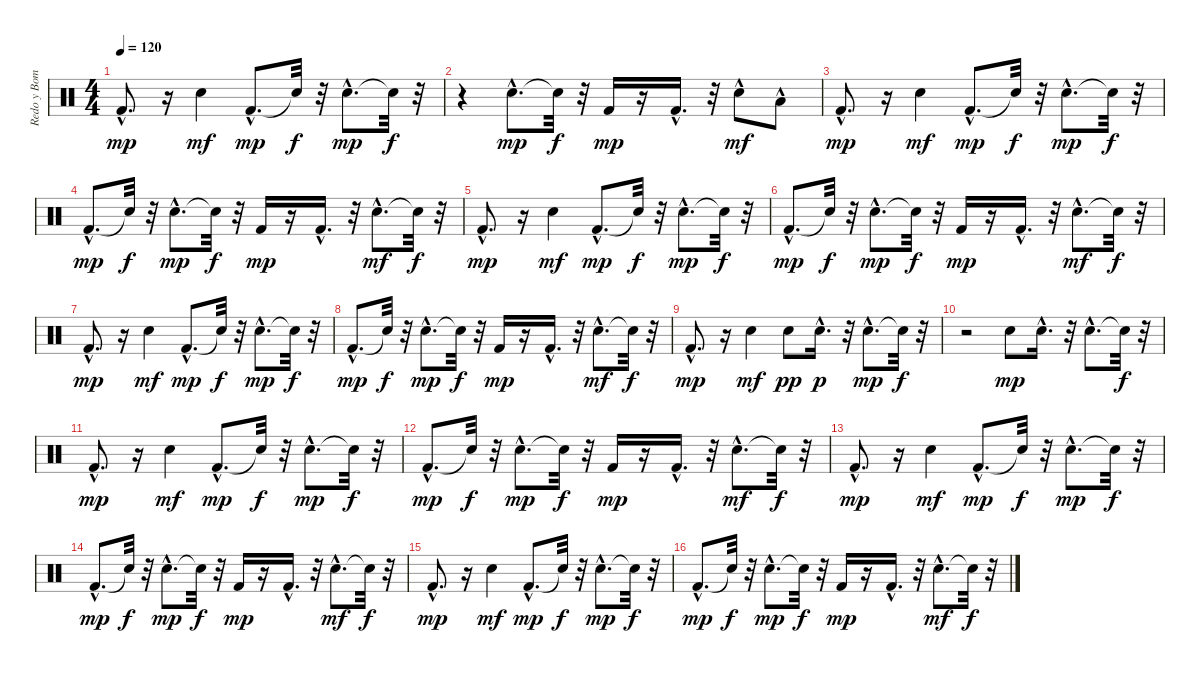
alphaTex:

\track ("Redo y Bombo" "Redo y Bom") {instrument percussion}
\staff {score}
\articulation defaults
\ts (4 4)
\tempo 120
\clef neutral
\ks c "Kick (hit) 2"{hac}.8{d dy mp}
r.16 "Snare (hit) 2".4{dy mf} "Kick (hit) 2"{hac}.8{d dy mp} "Snare (hit)"{t}.32{dy f} r.32 "Snare (hit) 2"{hac}.8{d dy mp} "Snare (hit)"{t}.32{dy f} r.32 |
r.4 "Snare (hit) 2"{hac}.8{d dy mp} "Snare (hit)"{t}.32{dy f} r.32 "Kick (hit) 2".16{dy mp} r.16 "Kick (hit) 2"{hac}.16{d} r.32 "Snare (hit) 2"{hac}.8{dy mf} "Low Floor Tom (hit)"{hac}.8 |
"Kick (hit) 2"{hac}.8{d dy mp} r.16 "Snare (hit) 2".4{dy mf} "Kick (hit) 2"{hac}.8{d dy mp} "Snare (hit)"{t}.32{dy f} r.32 "Snare (hit) 2"{hac}.8{d dy mp} "Snare (hit)"{t}.32{dy f} r.32 |
"Kick (hit) 2"{hac}.8{d dy mp} "Snare (hit)"{t}.32{dy f} r.32 "Snare (hit) 2"{hac}.8{d dy mp} "Snare (hit)"{t}.32{dy f} r.32 "Kick (hit) 2".16{dy mp} r.16 "Kick (hit) 2"{hac}.16{d} r.32 "Snare (hit) 2"{hac}.8{d dy mf} "Snare (hit)"{t}.32{dy f} r.32 |
"Kick (hit) 2"{hac}.8{d dy mp} r.16 "Snare (hit) 2".4{dy mf} "Kick (hit) 2"{hac}.8{d dy mp} "Snare (hit)"{t}.32{dy f} r.32 "Snare (hit) 2"{hac}.8{d dy mp} "Snare (hit)"{t}.32{dy f} r.32 |
"Kick (hit) 2"{hac}.8{d dy mp} "Snare (hit)"{t}.32{dy f} r.32 "Snare (hit) 2"{hac}.8{d dy mp} "Snare (hit)"{t}.32{dy f} r.32 "Kick (hit) 2".16{dy mp} r.16 "Kick (hit) 2"{hac}.16{d} r.32 "Snare (hit) 2"{hac}.8{d dy mf} "Snare (hit)"{t}.32{dy f} r.32 |
"Kick (hit) 2"{hac}.8{d dy mp} r.16 "Snare (hit) 2".4{dy mf} "Kick (hit) 2"{hac}.8{d dy mp} "Snare (hit)"{t}.32{dy f} r.32 "Snare (hit) 2"{hac}.8{d dy mp} "Snare (hit)"{t}.32{dy f} r.32 |
"Kick (hit) 2"{hac}.8{d dy mp} "Snare (hit)"{t}.32{dy f} r.32 "Snare (hit) 2"{hac}.8{d dy mp} "Snare (hit)"{t}.32{dy f} r.32 "Kick (hit) 2".16{dy mp} r.16 "Kick (hit) 2"{hac}.16{d} r.32 "Snare (hit) 2"{hac}.8{d dy mf} "Snare (hit)"{t}.32{dy f} r.32 |
"Kick (hit) 2"{hac}.8{d dy mp} r.16 "Snare (hit) 2".4{dy mf} "Electric Snare (hit)".8{dy pp} "Electric Snare (hit)"{hac}.16{d dy p} r.32 "Electric Snare (hit)"{hac}.8{d dy mp} "Snare (hit)"{t}.32{dy f} r.32 |
r.2 "Snare (hit) 2".8{dy mp} "Snare (hit) 2"{hac}.16{d} r.32 "Snare (hit) 2"{hac}.8{d} "Snare (hit)"{t}.32{dy f} r.32 |
"Kick (hit) 2"{hac}.8{d dy mp} r.16 "Snare (hit) 2".4{dy mf} "Kick (hit) 2"{hac}.8{d dy mp} "Snare (hit)"{t}.32{dy f} r.32 "Snare (hit) 2"{hac}.8{d dy mp} "Snare (hit)"{t}.32{dy f} r.32 |
"Kick (hit) 2"{hac}.8{d dy mp} "Snare (hit)"{t}.32{dy f} r.32 "Snare (hit) 2"{hac}.8{d dy mp} "Snare (hit)"{t}.32{dy f} r.32 "Kick (hit) 2".16{dy mp} r.16 "Kick (hit) 2"{hac}.16{d} r.32 "Snare (hit) 2"{hac}.8{d dy mf} "Snare (hit)"{t}.32{dy f} r.32 |
"Kick (hit) 2"{hac}.8{d dy mp} r.16 "Snare (hit) 2".4{dy mf} "Kick (hit) 2"{hac}.8{d dy mp} "Snare (hit)"{t}.32{dy f} r.32 "Snare (hit) 2"{hac}.8{d dy mp} "Snare (hit)"{t}.32{dy f} r.32 |
"Kick (hit) 2"{hac}.8{d dy mp} "Snare (hit)"{t}.32{dy f} r.32 "Snare (hit) 2"{hac}.8{d dy mp} "Snare (hit)"{t}.32{dy f} r.32 "Kick (hit) 2".16{dy mp} r.16 "Kick (hit) 2"{hac}.16{d} r.32 "Snare (hit) 2"{hac}.8{d dy mf} "Snare (hit)"{t}.32{dy f} r.32 |
"Kick (hit) 2"{hac}.8{d dy mp} r.16 "Snare (hit) 2".4{dy mf} "Kick (hit) 2"{hac}.8{d dy mp} "Snare (hit)"{t}.32{dy f} r.32 "Snare (hit) 2"{hac}.8{d dy mp} "Snare (hit)"{t}.32{dy f} r.32 |
"Kick (hit) 2"{hac}.8{d dy mp} "Snare (hit)"{t}.32{dy f} r.32 "Snare (hit) 2"{hac}.8{d dy mp} "Snare (hit)"{t}.32{dy f} r.32 "Kick (hit) 2".16{dy mp} r.16 "Kick (hit) 2"{hac}.16{d} r.32 "Snare (hit) 2"{hac}.8{d dy mf} "Snare (hit)"{t}.32{dy f} r.32
